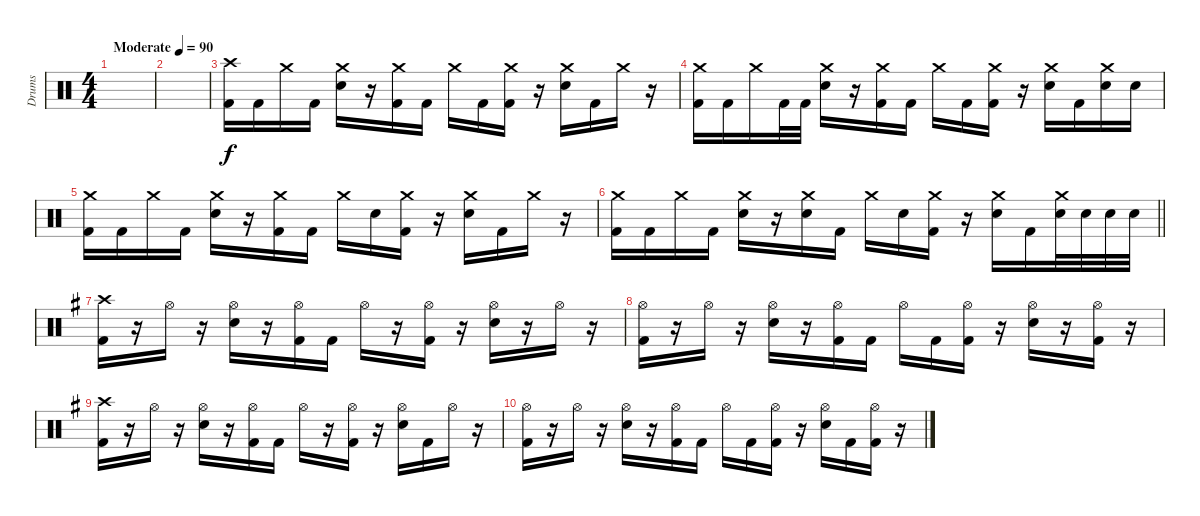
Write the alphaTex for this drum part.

\track ("Drums" "Drums") {instrument percussion}
\staff
\articulation defaults
\ts (4 4)
\tempo (90 "Moderate")
\clef neutral
\ks c
|
|
("Crash high (hit)" "Kick (hit) 2").16 "Kick (hit) 2".16 "Crash medium (hit)".16 "Kick (hit) 2".16 ("Crash medium (hit)" "Electric Snare (hit)").16 r.16 ("Crash medium (hit)" "Kick (hit) 2").16 "Kick (hit) 2".16 "Crash medium (hit)".16 "Kick (hit) 2".16 ("Crash medium (hit)" "Kick (hit) 2").16 r.16 ("Crash medium (hit)" "Electric Snare (hit)").16 "Kick (hit) 2".16 "Crash medium (hit)".16 r.16 |
("Crash medium (hit)" "Kick (hit) 2").16 "Kick (hit) 2".16 "Crash medium (hit)".16 "Kick (hit) 2".32 "Kick (hit) 2".32 ("Crash medium (hit)" "Electric Snare (hit)").16 r.16 ("Crash medium (hit)" "Kick (hit) 2").16 "Kick (hit) 2".16 "Crash medium (hit)".16 "Kick (hit) 2".16 ("Crash medium (hit)" "Kick (hit) 2").16 r.16 ("Crash medium (hit)" "Electric Snare (hit)").16 "Kick (hit) 2".16 ("Crash medium (hit)" "Electric Snare (hit)").16 "Electric Snare (hit)".16 |
("Crash medium (hit)" "Kick (hit) 2").16 "Kick (hit) 2".16 "Crash medium (hit)".16 "Kick (hit) 2".16 ("Crash medium (hit)" "Electric Snare (hit)").16 r.16 ("Crash medium (hit)" "Kick (hit) 2").16 "Kick (hit) 2".16 "Crash medium (hit)".16 "Electric Snare (hit)".16 ("Crash medium (hit)" "Kick (hit) 2").16 r.16 ("Crash medium (hit)" "Electric Snare (hit)").16 "Kick (hit) 2".16 "Crash medium (hit)".16 r.16 |
\barLineRight lightlight
("Crash medium (hit)" "Kick (hit) 2").16 "Kick (hit) 2".16 "Crash medium (hit)".16 "Kick (hit) 2".16 ("Crash medium (hit)" "Electric Snare (hit)").16 r.16 ("Crash medium (hit)" "Electric Snare (hit)").16 "Kick (hit) 2".16 "Crash medium (hit)".16 "Electric Snare (hit)".16 ("Crash medium (hit)" "Kick (hit) 2").16 r.16 ("Crash medium (hit)" "Electric Snare (hit)").16 "Kick (hit) 2".16 ("Crash medium (hit)" "Electric Snare (hit)").32 "Electric Snare (hit)".32 "Electric Snare (hit)".32 "Electric Snare (hit)".32 |
\ks g
("Crash high (hit)" "Kick (hit) 2").16 r.16 "Hi-Hat (open)".16 r.16 ("Hi-Hat (open)" "Electric Snare (hit)").16 r.16 ("Hi-Hat (open)" "Kick (hit) 2").16 "Kick (hit) 2".16 "Hi-Hat (open)".16 r.16 ("Hi-Hat (open)" "Kick (hit) 2").16 r.16 ("Hi-Hat (open)" "Electric Snare (hit)").16 r.16 "Hi-Hat (open)".16 r.16 |
("Hi-Hat (open)" "Kick (hit) 2").16 r.16 "Hi-Hat (open)".16 r.16 ("Hi-Hat (open)" "Electric Snare (hit)").16 r.16 ("Hi-Hat (open)" "Kick (hit) 2").16 "Kick (hit) 2".16 "Hi-Hat (open)".16 "Kick (hit) 2".16 ("Hi-Hat (open)" "Kick (hit) 2").16 r.16 ("Hi-Hat (open)" "Electric Snare (hit)").16 r.16 ("Hi-Hat (open)" "Kick (hit) 2").16 r.16 |
("Crash high (hit)" "Kick (hit) 2").16 r.16 "Hi-Hat (open)".16 r.16 ("Hi-Hat (open)" "Electric Snare (hit)").16 r.16 ("Hi-Hat (open)" "Kick (hit) 2").16 "Kick (hit) 2".16 "Hi-Hat (open)".16 r.16 ("Hi-Hat (open)" "Kick (hit) 2").16 r.16 ("Hi-Hat (open)" "Electric Snare (hit)").16 "Kick (hit) 2".16 "Hi-Hat (open)".16 r.16 |
("Hi-Hat (open)" "Kick (hit) 2").16 r.16 "Hi-Hat (open)".16 r.16 ("Hi-Hat (open)" "Electric Snare (hit)").16 r.16 ("Hi-Hat (open)" "Kick (hit) 2").16 "Kick (hit) 2".16 "Hi-Hat (open)".16 "Kick (hit) 2".16 ("Hi-Hat (open)" "Kick (hit) 2").16 r.16 ("Hi-Hat (open)" "Electric Snare (hit)").16 "Kick (hit) 2".16 ("Hi-Hat (open)" "Kick (hit) 2").16 r.16
